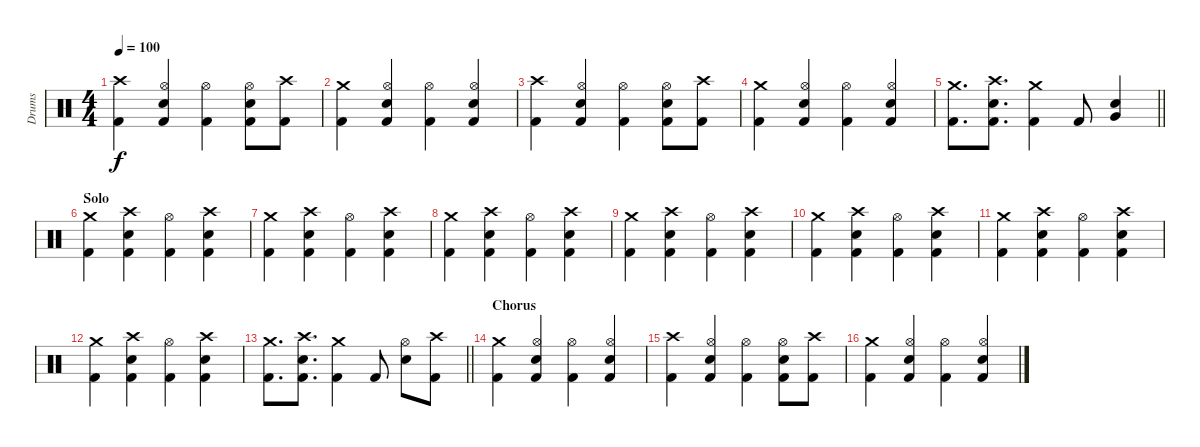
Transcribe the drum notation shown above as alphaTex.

\track ("Drums" "Drums") {instrument percussion}
\staff {score}
\articulation defaults
\ts (4 4)
\tempo 100
\clef neutral
\ks c
("Crash high (hit)" "Kick (hit) 2").4{dy f} ("Hi-Hat (open)" "Electric Snare (hit)" "Kick (hit) 2").4 ("Hi-Hat (open)" "Kick (hit) 2").4 ("Hi-Hat (open)" "Electric Snare (hit)" "Kick (hit) 2").8 ("Crash high (hit)" "Kick (hit) 2").8 |
("Crash medium (hit)" "Kick (hit) 2").4 ("Hi-Hat (open)" "Electric Snare (hit)" "Kick (hit) 2").4 ("Hi-Hat (open)" "Kick (hit) 2").4 ("Hi-Hat (open)" "Electric Snare (hit)" "Kick (hit) 2").4 |
("Crash high (hit)" "Kick (hit) 2").4 ("Hi-Hat (open)" "Electric Snare (hit)" "Kick (hit) 2").4 ("Hi-Hat (open)" "Kick (hit) 2").4 ("Hi-Hat (open)" "Electric Snare (hit)" "Kick (hit) 2").8 ("Crash high (hit)" "Kick (hit) 2").8 |
("Crash medium (hit)" "Kick (hit) 2").4 ("Hi-Hat (open)" "Electric Snare (hit)" "Kick (hit) 2").4 ("Hi-Hat (open)" "Kick (hit) 2").4 ("Hi-Hat (open)" "Electric Snare (hit)" "Kick (hit) 2").4 |
\barLineRight lightlight
("Crash medium (hit)" "Kick (hit) 2").8{d} ("Crash high (hit)" "Electric Snare (hit)" "Kick (hit) 2").8{d} ("Crash medium (hit)" "Kick (hit) 2").4 "Kick (hit) 2".8 ("Very Low Tom (hit)" "Electric Snare (hit)").4 |
\section ("" "Solo")
("Crash medium (hit)" "Kick (hit) 2").4 ("Crash high (hit)" "Electric Snare (hit)" "Kick (hit) 2").4 ("Hi-Hat (open)" "Kick (hit) 2").4 ("Crash high (hit)" "Electric Snare (hit)" "Kick (hit) 2").4 |
("Crash medium (hit)" "Kick (hit) 2").4 ("Crash high (hit)" "Electric Snare (hit)" "Kick (hit) 2").4 ("Hi-Hat (open)" "Kick (hit) 2").4 ("Crash high (hit)" "Electric Snare (hit)" "Kick (hit) 2").4 |
("Crash medium (hit)" "Kick (hit) 2").4 ("Crash high (hit)" "Electric Snare (hit)" "Kick (hit) 2").4 ("Hi-Hat (open)" "Kick (hit) 2").4 ("Crash high (hit)" "Electric Snare (hit)" "Kick (hit) 2").4 |
("Crash medium (hit)" "Kick (hit) 2").4 ("Crash high (hit)" "Electric Snare (hit)" "Kick (hit) 2").4 ("Hi-Hat (open)" "Kick (hit) 2").4 ("Crash high (hit)" "Electric Snare (hit)" "Kick (hit) 2").4 |
("Crash medium (hit)" "Kick (hit) 2").4 ("Crash high (hit)" "Electric Snare (hit)" "Kick (hit) 2").4 ("Hi-Hat (open)" "Kick (hit) 2").4 ("Crash high (hit)" "Electric Snare (hit)" "Kick (hit) 2").4 |
("Crash medium (hit)" "Kick (hit) 2").4 ("Crash high (hit)" "Electric Snare (hit)" "Kick (hit) 2").4 ("Hi-Hat (open)" "Kick (hit) 2").4 ("Crash high (hit)" "Electric Snare (hit)" "Kick (hit) 2").4 |
("Crash medium (hit)" "Kick (hit) 2").4 ("Crash high (hit)" "Electric Snare (hit)" "Kick (hit) 2").4 ("Hi-Hat (open)" "Kick (hit) 2").4 ("Crash high (hit)" "Electric Snare (hit)" "Kick (hit) 2").4 |
\barLineRight lightlight
("Crash medium (hit)" "Kick (hit) 2").8{d} ("Crash high (hit)" "Electric Snare (hit)" "Kick (hit) 2").8{d} ("Crash medium (hit)" "Kick (hit) 2").4 "Kick (hit) 2".8 ("Hi-Hat (open)" "Electric Snare (hit)").8 ("Crash high (hit)" "Kick (hit) 2").8 |
\section ("" "Chorus")
("Crash medium (hit)" "Kick (hit) 2").4 ("Hi-Hat (open)" "Electric Snare (hit)" "Kick (hit) 2").4 ("Hi-Hat (open)" "Kick (hit) 2").4 ("Hi-Hat (open)" "Electric Snare (hit)" "Kick (hit) 2").4 |
("Crash high (hit)" "Kick (hit) 2").4 ("Hi-Hat (open)" "Electric Snare (hit)" "Kick (hit) 2").4 ("Hi-Hat (open)" "Kick (hit) 2").4 ("Hi-Hat (open)" "Electric Snare (hit)" "Kick (hit) 2").8 ("Crash high (hit)" "Kick (hit) 2").8 |
("Crash medium (hit)" "Kick (hit) 2").4 ("Hi-Hat (open)" "Electric Snare (hit)" "Kick (hit) 2").4 ("Hi-Hat (open)" "Kick (hit) 2").4 ("Hi-Hat (open)" "Electric Snare (hit)" "Kick (hit) 2").4
